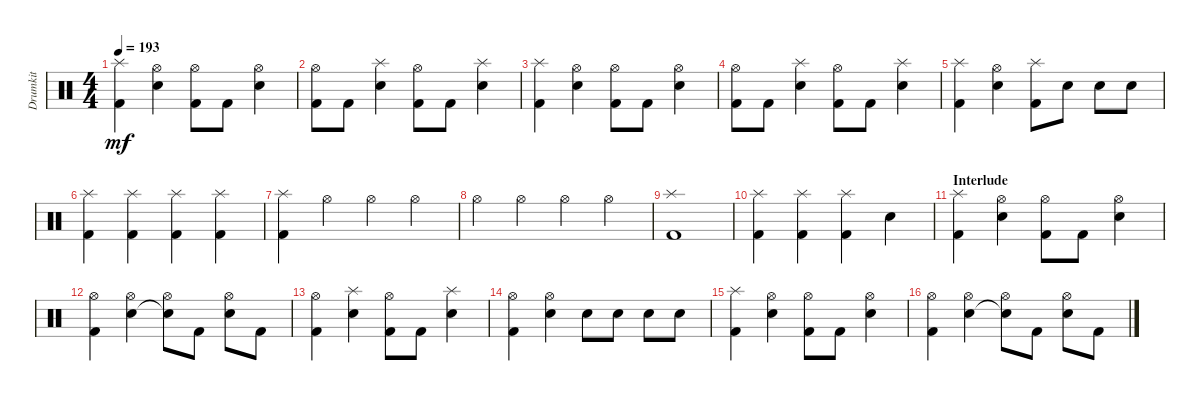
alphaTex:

\track ("Drumkit" "Drumkit") {instrument percussion}
\staff {score}
\articulation defaults
\ts (4 4)
\tempo 193
\clef neutral
\ks c
("Kick (hit) 2" "Splash (hit)").4{dy mf} ("Snare (hit) 2" "Hi-Hat (open)").4 ("Kick (hit) 2" "Hi-Hat (open)").8 "Kick (hit) 2".8 ("Snare (hit) 2" "Hi-Hat (open)").4 |
("Kick (hit) 2" "Hi-Hat (open)").8 "Kick (hit) 2".8 ("Snare (hit) 2" "Splash (hit)").4 ("Kick (hit) 2" "Hi-Hat (open)").8 "Kick (hit) 2".8 ("Snare (hit) 2" "Splash (hit)").4 |
("Kick (hit) 2" "Splash (hit)").4 ("Snare (hit) 2" "Hi-Hat (open)").4 ("Kick (hit) 2" "Hi-Hat (open)").8 "Kick (hit) 2".8 ("Snare (hit) 2" "Hi-Hat (open)").4 |
("Kick (hit) 2" "Hi-Hat (open)").8 "Kick (hit) 2".8 ("Snare (hit) 2" "Splash (hit)").4 ("Kick (hit) 2" "Hi-Hat (open)").8 "Kick (hit) 2".8 ("Snare (hit) 2" "Splash (hit)").4 |
("Kick (hit) 2" "Splash (hit)").4 ("Snare (hit) 2" "Hi-Hat (open)").4 ("Kick (hit) 2" "Splash (hit)").8 "Snare (hit) 2".8 "Snare (hit) 2".8 "Snare (hit) 2".8 |
("Kick (hit) 2" "Splash (hit)").4 ("Kick (hit) 2" "Splash (hit)").4 ("Kick (hit) 2" "Splash (hit)").4 ("Kick (hit) 2" "Splash (hit)").4 |
("Kick (hit) 2" "Splash (hit)").4 "Hi-Hat (open)".4 "Hi-Hat (open)".4 "Hi-Hat (open)".4 |
"Hi-Hat (open)".4 "Hi-Hat (open)".4 "Hi-Hat (open)".4 "Hi-Hat (open)".4 |
("Splash (hit)" "Kick (hit) 2").1 |
("Kick (hit) 2" "Splash (hit)").4 ("Kick (hit) 2" "Splash (hit)").4 ("Kick (hit) 2" "Splash (hit)").4 "Snare (hit) 2".4 |
\section ("" "Interlude")
("Kick (hit) 2" "Splash (hit)").4 ("Snare (hit) 2" "Hi-Hat (open)").4 ("Kick (hit) 2" "Hi-Hat (open)").8 "Kick (hit) 2".8 ("Snare (hit) 2" "Hi-Hat (open)").4 |
("Hi-Hat (open)" "Kick (hit) 2").4 ("Hi-Hat (open)" "Snare (hit) 2").4 ("Hi-Hat (open)" "Snare (hit) 2"{t}).8 "Kick (hit) 2".8 ("Hi-Hat (open)" "Snare (hit) 2").8 "Kick (hit) 2".8 |
("Kick (hit) 2" "Hi-Hat (open)").4 ("Snare (hit) 2" "Splash (hit)").4 ("Kick (hit) 2" "Hi-Hat (open)").8 "Kick (hit) 2".8 ("Snare (hit) 2" "Splash (hit)").4 |
("Kick (hit) 2" "Hi-Hat (open)").4 ("Snare (hit) 2" "Hi-Hat (open)").4 "Snare (hit) 2".8 "Snare (hit) 2".8 "Snare (hit) 2".8 "Snare (hit) 2".8 |
("Kick (hit) 2" "Splash (hit)").4 ("Snare (hit) 2" "Hi-Hat (open)").4 ("Kick (hit) 2" "Hi-Hat (open)").8 "Kick (hit) 2".8 ("Snare (hit) 2" "Hi-Hat (open)").4 |
("Hi-Hat (open)" "Kick (hit) 2").4 ("Hi-Hat (open)" "Snare (hit) 2").4 ("Hi-Hat (open)" "Snare (hit) 2"{t}).8 "Kick (hit) 2".8 ("Hi-Hat (open)" "Snare (hit) 2").8 "Kick (hit) 2".8
